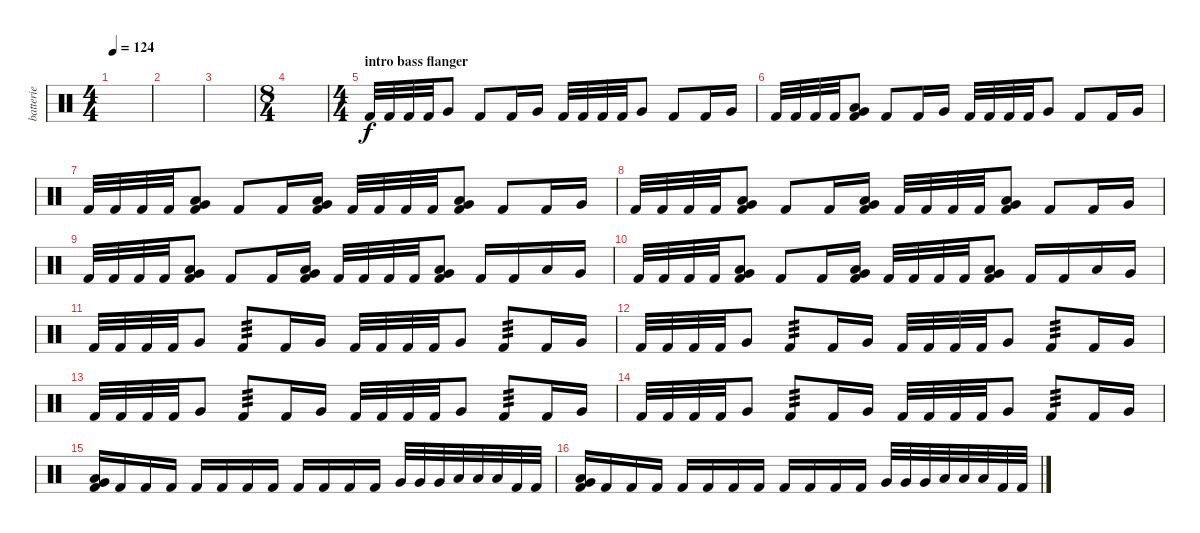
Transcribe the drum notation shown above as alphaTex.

\track ("batterie" "batterie") {instrument percussion}
\staff {score}
\articulation defaults
\ts (4 4)
\tempo 124
\clef neutral
\ks c
|
|
|
\ts (8 4)
|
\ts (4 4)
\section ("" "intro bass flanger")
"Kick (hit) 2".32 "Kick (hit) 2".32 "Kick (hit) 2".32 "Kick (hit) 2".32 "Very Low Tom (hit)".8 "Kick (hit) 2".8 "Kick (hit) 2".16 "Very Low Tom (hit)".16 "Kick (hit) 2".32 "Kick (hit) 2".32 "Kick (hit) 2".32 "Kick (hit) 2".32 "Very Low Tom (hit)".8 "Kick (hit) 2".8 "Kick (hit) 2".16 "Very Low Tom (hit)".16 |
"Kick (hit) 2".32 "Kick (hit) 2".32 "Kick (hit) 2".32 "Kick (hit) 2".32 ("Kick (hit) 2" "Low Floor Tom (hit)" "Very Low Tom (hit)").8 "Kick (hit) 2".8 "Kick (hit) 2".16 "Very Low Tom (hit)".16 "Kick (hit) 2".32 "Kick (hit) 2".32 "Kick (hit) 2".32 "Kick (hit) 2".32 "Very Low Tom (hit)".8 "Kick (hit) 2".8 "Kick (hit) 2".16 "Very Low Tom (hit)".16 |
"Kick (hit) 2".32 "Kick (hit) 2".32 "Kick (hit) 2".32 "Kick (hit) 2".32 ("Kick (hit) 2" "Low Floor Tom (hit)" "Very Low Tom (hit)").8 "Kick (hit) 2".8 "Kick (hit) 2".16 ("Kick (hit) 2" "Low Floor Tom (hit)" "Very Low Tom (hit)").16 "Kick (hit) 2".32 "Kick (hit) 2".32 "Kick (hit) 2".32 "Kick (hit) 2".32 ("Kick (hit) 2" "Low Floor Tom (hit)" "Very Low Tom (hit)").8 "Kick (hit) 2".8 "Kick (hit) 2".16 "Very Low Tom (hit)".16 |
"Kick (hit) 2".32 "Kick (hit) 2".32 "Kick (hit) 2".32 "Kick (hit) 2".32 ("Kick (hit) 2" "Low Floor Tom (hit)" "Very Low Tom (hit)").8 "Kick (hit) 2".8 "Kick (hit) 2".16 ("Kick (hit) 2" "Low Floor Tom (hit)" "Very Low Tom (hit)").16 "Kick (hit) 2".32 "Kick (hit) 2".32 "Kick (hit) 2".32 "Kick (hit) 2".32 ("Kick (hit) 2" "Low Floor Tom (hit)" "Very Low Tom (hit)").8 "Kick (hit) 2".8 "Kick (hit) 2".16 "Very Low Tom (hit)".16 |
"Kick (hit) 2".32 "Kick (hit) 2".32 "Kick (hit) 2".32 "Kick (hit) 2".32 ("Kick (hit) 2" "Low Floor Tom (hit)" "Very Low Tom (hit)").8 "Kick (hit) 2".8 "Kick (hit) 2".16 ("Kick (hit) 2" "Low Floor Tom (hit)" "Very Low Tom (hit)").16 "Kick (hit) 2".32 "Kick (hit) 2".32 "Kick (hit) 2".32 "Kick (hit) 2".32 ("Kick (hit) 2" "Low Floor Tom (hit)" "Very Low Tom (hit)").8 "Kick (hit) 2".16 "Kick (hit) 2".16 "Low Floor Tom (hit)".16 "Very Low Tom (hit)".16 |
"Kick (hit) 2".32 "Kick (hit) 2".32 "Kick (hit) 2".32 "Kick (hit) 2".32 ("Kick (hit) 2" "Low Floor Tom (hit)" "Very Low Tom (hit)").8 "Kick (hit) 2".8 "Kick (hit) 2".16 ("Kick (hit) 2" "Low Floor Tom (hit)" "Very Low Tom (hit)").16 "Kick (hit) 2".32 "Kick (hit) 2".32 "Kick (hit) 2".32 "Kick (hit) 2".32 ("Kick (hit) 2" "Low Floor Tom (hit)" "Very Low Tom (hit)").8 "Kick (hit) 2".16 "Kick (hit) 2".16 "Low Floor Tom (hit)".16 "Very Low Tom (hit)".16 |
"Kick (hit) 2".32 "Kick (hit) 2".32 "Kick (hit) 2".32 "Kick (hit) 2".32 "Very Low Tom (hit)".8 "Kick (hit) 2".8{tp 3} "Kick (hit) 2".16 "Very Low Tom (hit)".16 "Kick (hit) 2".32 "Kick (hit) 2".32 "Kick (hit) 2".32 "Kick (hit) 2".32 "Very Low Tom (hit)".8 "Kick (hit) 2".8{tp 3} "Kick (hit) 2".16 "Very Low Tom (hit)".16 |
"Kick (hit) 2".32 "Kick (hit) 2".32 "Kick (hit) 2".32 "Kick (hit) 2".32 "Very Low Tom (hit)".8 "Kick (hit) 2".8{tp 3} "Kick (hit) 2".16 "Very Low Tom (hit)".16 "Kick (hit) 2".32 "Kick (hit) 2".32 "Kick (hit) 2".32 "Kick (hit) 2".32 "Very Low Tom (hit)".8 "Kick (hit) 2".8{tp 3} "Kick (hit) 2".16 "Very Low Tom (hit)".16 |
"Kick (hit) 2".32 "Kick (hit) 2".32 "Kick (hit) 2".32 "Kick (hit) 2".32 "Very Low Tom (hit)".8 "Kick (hit) 2".8{tp 3} "Kick (hit) 2".16 "Very Low Tom (hit)".16 "Kick (hit) 2".32 "Kick (hit) 2".32 "Kick (hit) 2".32 "Kick (hit) 2".32 "Very Low Tom (hit)".8 "Kick (hit) 2".8{tp 3} "Kick (hit) 2".16 "Very Low Tom (hit)".16 |
"Kick (hit) 2".32 "Kick (hit) 2".32 "Kick (hit) 2".32 "Kick (hit) 2".32 "Very Low Tom (hit)".8 "Kick (hit) 2".8{tp 3} "Kick (hit) 2".16 "Very Low Tom (hit)".16 "Kick (hit) 2".32 "Kick (hit) 2".32 "Kick (hit) 2".32 "Kick (hit) 2".32 "Very Low Tom (hit)".8 "Kick (hit) 2".8{tp 3} "Kick (hit) 2".16 "Very Low Tom (hit)".16 |
("Low Floor Tom (hit)" "Very Low Tom (hit)" "Kick (hit) 2").16 "Kick (hit) 2".16 "Kick (hit) 2".16 "Kick (hit) 2".16 "Kick (hit) 2".16 "Kick (hit) 2".16 "Kick (hit) 2".16 "Kick (hit) 2".16 "Kick (hit) 2".16 "Kick (hit) 2".16 "Kick (hit) 2".16 "Kick (hit) 2".16 "Very Low Tom (hit)".32 "Very Low Tom (hit)".32 "Very Low Tom (hit)".32 "Low Floor Tom (hit)".32 "Low Floor Tom (hit)".32 "Low Floor Tom (hit)".32 "Kick (hit) 2".32 "Kick (hit) 2".32 |
("Low Floor Tom (hit)" "Very Low Tom (hit)" "Kick (hit) 2").16 "Kick (hit) 2".16 "Kick (hit) 2".16 "Kick (hit) 2".16 "Kick (hit) 2".16 "Kick (hit) 2".16 "Kick (hit) 2".16 "Kick (hit) 2".16 "Kick (hit) 2".16 "Kick (hit) 2".16 "Kick (hit) 2".16 "Kick (hit) 2".16 "Very Low Tom (hit)".32 "Very Low Tom (hit)".32 "Very Low Tom (hit)".32 "Low Floor Tom (hit)".32 "Low Floor Tom (hit)".32 "Low Floor Tom (hit)".32 "Kick (hit) 2".32 "Kick (hit) 2".32
